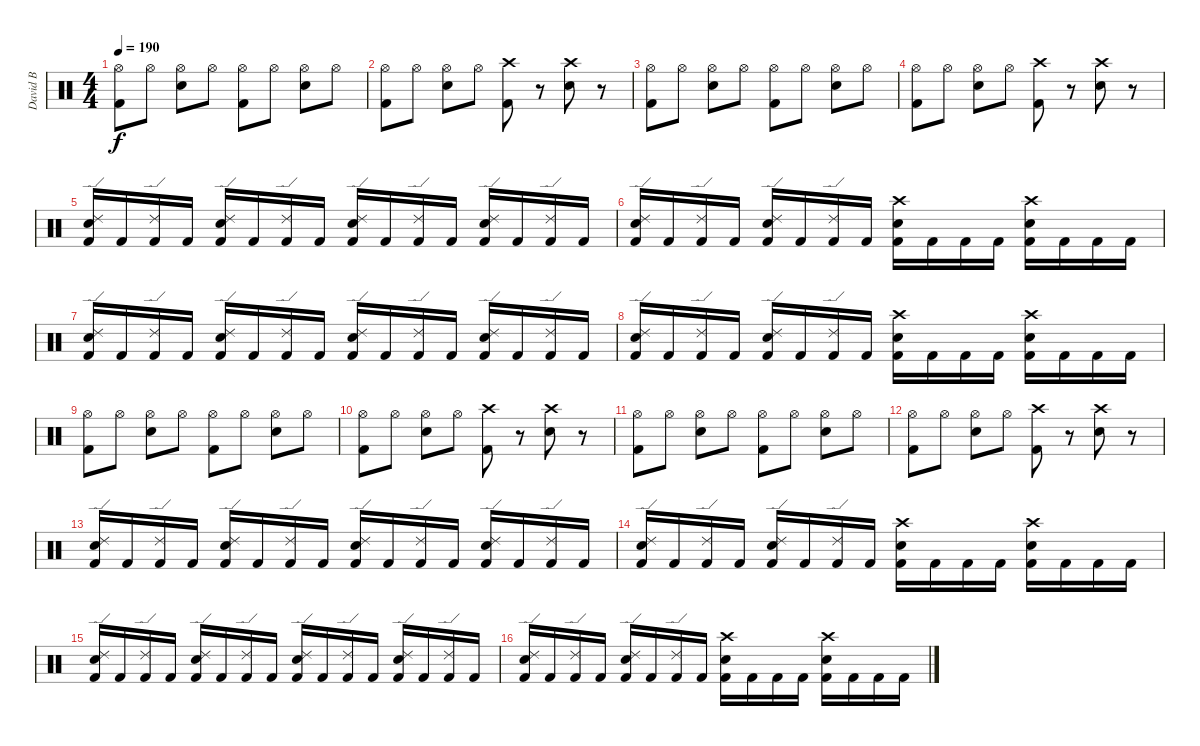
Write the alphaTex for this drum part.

\track ("David B" "David B") {instrument percussion}
\staff {score}
\articulation defaults
\ts (4 4)
\tempo 190
\clef neutral
\ks c
("Hi-Hat (open)" "Kick (hit) 2").8{dy f} "Hi-Hat (open)".8 ("Hi-Hat (open)" "Electric Snare (hit)").8 "Hi-Hat (open)".8 ("Hi-Hat (open)" "Kick (hit) 2").8 "Hi-Hat (open)".8 ("Hi-Hat (open)" "Electric Snare (hit)").8 "Hi-Hat (open)".8 |
("Hi-Hat (open)" "Kick (hit) 2").8 "Hi-Hat (open)".8 ("Hi-Hat (open)" "Electric Snare (hit)").8 "Hi-Hat (open)".8 ("Crash high (hit)" "Kick (hit) 2").8 r.8 ("Crash high (hit)" "Electric Snare (hit)").8 r.8 |
("Hi-Hat (open)" "Kick (hit) 2").8 "Hi-Hat (open)".8 ("Hi-Hat (open)" "Electric Snare (hit)").8 "Hi-Hat (open)".8 ("Hi-Hat (open)" "Kick (hit) 2").8 "Hi-Hat (open)".8 ("Hi-Hat (open)" "Electric Snare (hit)").8 "Hi-Hat (open)".8 |
("Hi-Hat (open)" "Kick (hit) 2").8 "Hi-Hat (open)".8 ("Hi-Hat (open)" "Electric Snare (hit)").8 "Hi-Hat (open)".8 ("Crash high (hit)" "Kick (hit) 2").8 r.8 ("Crash high (hit)" "Electric Snare (hit)").8 r.8 |
("Ride (edge) 2" "Electric Snare (hit)" "Kick (hit) 2").16 "Kick (hit) 2".16 ("Ride (edge) 2" "Kick (hit) 2").16 "Kick (hit) 2".16 ("Ride (edge) 2" "Electric Snare (hit)" "Kick (hit) 2").16 "Kick (hit) 2".16 ("Ride (edge) 2" "Kick (hit) 2").16 "Kick (hit) 2".16 ("Ride (edge) 2" "Electric Snare (hit)" "Kick (hit) 2").16 "Kick (hit) 2".16 ("Ride (edge) 2" "Kick (hit) 2").16 "Kick (hit) 2".16 ("Ride (edge) 2" "Electric Snare (hit)" "Kick (hit) 2").16 "Kick (hit) 2".16 ("Ride (edge) 2" "Kick (hit) 2").16 "Kick (hit) 2".16 |
("Ride (edge) 2" "Electric Snare (hit)" "Kick (hit) 2").16 "Kick (hit) 2".16 ("Ride (edge) 2" "Kick (hit) 2").16 "Kick (hit) 2".16 ("Ride (edge) 2" "Electric Snare (hit)" "Kick (hit) 2").16 "Kick (hit) 2".16 ("Ride (edge) 2" "Kick (hit) 2").16 "Kick (hit) 2".16 ("Crash high (hit)" "Electric Snare (hit)" "Kick (hit) 2").16 "Kick (hit) 2".16 "Kick (hit) 2".16 "Kick (hit) 2".16 ("Crash high (hit)" "Electric Snare (hit)" "Kick (hit) 2").16 "Kick (hit) 2".16 "Kick (hit) 2".16 "Kick (hit) 2".16 |
("Ride (edge) 2" "Electric Snare (hit)" "Kick (hit) 2").16 "Kick (hit) 2".16 ("Ride (edge) 2" "Kick (hit) 2").16 "Kick (hit) 2".16 ("Ride (edge) 2" "Electric Snare (hit)" "Kick (hit) 2").16 "Kick (hit) 2".16 ("Ride (edge) 2" "Kick (hit) 2").16 "Kick (hit) 2".16 ("Ride (edge) 2" "Electric Snare (hit)" "Kick (hit) 2").16 "Kick (hit) 2".16 ("Ride (edge) 2" "Kick (hit) 2").16 "Kick (hit) 2".16 ("Ride (edge) 2" "Electric Snare (hit)" "Kick (hit) 2").16 "Kick (hit) 2".16 ("Ride (edge) 2" "Kick (hit) 2").16 "Kick (hit) 2".16 |
("Ride (edge) 2" "Electric Snare (hit)" "Kick (hit) 2").16 "Kick (hit) 2".16 ("Ride (edge) 2" "Kick (hit) 2").16 "Kick (hit) 2".16 ("Ride (edge) 2" "Electric Snare (hit)" "Kick (hit) 2").16 "Kick (hit) 2".16 ("Ride (edge) 2" "Kick (hit) 2").16 "Kick (hit) 2".16 ("Crash high (hit)" "Electric Snare (hit)" "Kick (hit) 2").16 "Kick (hit) 2".16 "Kick (hit) 2".16 "Kick (hit) 2".16 ("Crash high (hit)" "Electric Snare (hit)" "Kick (hit) 2").16 "Kick (hit) 2".16 "Kick (hit) 2".16 "Kick (hit) 2".16 |
("Hi-Hat (open)" "Kick (hit) 2").8 "Hi-Hat (open)".8 ("Hi-Hat (open)" "Electric Snare (hit)").8 "Hi-Hat (open)".8 ("Hi-Hat (open)" "Kick (hit) 2").8 "Hi-Hat (open)".8 ("Hi-Hat (open)" "Electric Snare (hit)").8 "Hi-Hat (open)".8 |
("Hi-Hat (open)" "Kick (hit) 2").8 "Hi-Hat (open)".8 ("Hi-Hat (open)" "Electric Snare (hit)").8 "Hi-Hat (open)".8 ("Crash high (hit)" "Kick (hit) 2").8 r.8 ("Crash high (hit)" "Electric Snare (hit)").8 r.8 |
("Hi-Hat (open)" "Kick (hit) 2").8 "Hi-Hat (open)".8 ("Hi-Hat (open)" "Electric Snare (hit)").8 "Hi-Hat (open)".8 ("Hi-Hat (open)" "Kick (hit) 2").8 "Hi-Hat (open)".8 ("Hi-Hat (open)" "Electric Snare (hit)").8 "Hi-Hat (open)".8 |
("Hi-Hat (open)" "Kick (hit) 2").8 "Hi-Hat (open)".8 ("Hi-Hat (open)" "Electric Snare (hit)").8 "Hi-Hat (open)".8 ("Crash high (hit)" "Kick (hit) 2").8 r.8 ("Crash high (hit)" "Electric Snare (hit)").8 r.8 |
("Ride (edge) 2" "Electric Snare (hit)" "Kick (hit) 2").16 "Kick (hit) 2".16 ("Ride (edge) 2" "Kick (hit) 2").16 "Kick (hit) 2".16 ("Ride (edge) 2" "Electric Snare (hit)" "Kick (hit) 2").16 "Kick (hit) 2".16 ("Ride (edge) 2" "Kick (hit) 2").16 "Kick (hit) 2".16 ("Ride (edge) 2" "Electric Snare (hit)" "Kick (hit) 2").16 "Kick (hit) 2".16 ("Ride (edge) 2" "Kick (hit) 2").16 "Kick (hit) 2".16 ("Ride (edge) 2" "Electric Snare (hit)" "Kick (hit) 2").16 "Kick (hit) 2".16 ("Ride (edge) 2" "Kick (hit) 2").16 "Kick (hit) 2".16 |
("Ride (edge) 2" "Electric Snare (hit)" "Kick (hit) 2").16 "Kick (hit) 2".16 ("Ride (edge) 2" "Kick (hit) 2").16 "Kick (hit) 2".16 ("Ride (edge) 2" "Electric Snare (hit)" "Kick (hit) 2").16 "Kick (hit) 2".16 ("Ride (edge) 2" "Kick (hit) 2").16 "Kick (hit) 2".16 ("Crash high (hit)" "Electric Snare (hit)" "Kick (hit) 2").16 "Kick (hit) 2".16 "Kick (hit) 2".16 "Kick (hit) 2".16 ("Crash high (hit)" "Electric Snare (hit)" "Kick (hit) 2").16 "Kick (hit) 2".16 "Kick (hit) 2".16 "Kick (hit) 2".16 |
("Ride (edge) 2" "Electric Snare (hit)" "Kick (hit) 2").16 "Kick (hit) 2".16 ("Ride (edge) 2" "Kick (hit) 2").16 "Kick (hit) 2".16 ("Ride (edge) 2" "Electric Snare (hit)" "Kick (hit) 2").16 "Kick (hit) 2".16 ("Ride (edge) 2" "Kick (hit) 2").16 "Kick (hit) 2".16 ("Ride (edge) 2" "Electric Snare (hit)" "Kick (hit) 2").16 "Kick (hit) 2".16 ("Ride (edge) 2" "Kick (hit) 2").16 "Kick (hit) 2".16 ("Ride (edge) 2" "Electric Snare (hit)" "Kick (hit) 2").16 "Kick (hit) 2".16 ("Ride (edge) 2" "Kick (hit) 2").16 "Kick (hit) 2".16 |
("Ride (edge) 2" "Electric Snare (hit)" "Kick (hit) 2").16 "Kick (hit) 2".16 ("Ride (edge) 2" "Kick (hit) 2").16 "Kick (hit) 2".16 ("Ride (edge) 2" "Electric Snare (hit)" "Kick (hit) 2").16 "Kick (hit) 2".16 ("Ride (edge) 2" "Kick (hit) 2").16 "Kick (hit) 2".16 ("Crash high (hit)" "Electric Snare (hit)" "Kick (hit) 2").16 "Kick (hit) 2".16 "Kick (hit) 2".16 "Kick (hit) 2".16 ("Crash high (hit)" "Electric Snare (hit)" "Kick (hit) 2").16 "Kick (hit) 2".16 "Kick (hit) 2".16 "Kick (hit) 2".16
